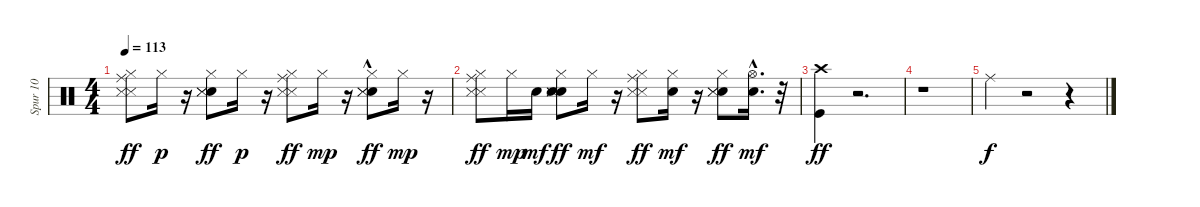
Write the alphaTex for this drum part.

\track ("Spur 10" "Spur 10") {instrument percussion}
\staff {score}
\articulation defaults
\ts (4 4)
\tempo 113
\clef neutral
\ks c
("Ride (middle)" "Hi-Hat (closed)" "Snare (side stick) 3" "Snare (side stick) 3").8{dy ff} "Hi-Hat (closed)".16{dy p} r.16 ("Hi-Hat (closed)" "Metronome (bell)" "Snare (side stick) 3" "Snare (side stick) 3").8{dy ff} "Hi-Hat (closed)".16{dy p} r.16 ("Hi-Hat (closed)" "Ride (middle)" "Snare (side stick) 3" "Snare (side stick) 3").8{dy ff} "Hi-Hat (closed)".16{dy mp} r.16 ("Hi-Hat (closed)" "Metronome (bell)"{hac} "Snare (side stick) 3" "Snare (side stick) 3").8{dy ff} "Hi-Hat (closed)".16{dy mp} r.16 |
("Hi-Hat (closed)" "Ride (middle)" "Snare (side stick) 3" "Snare (side stick) 3").8{dy ff} "Hi-Hat (closed)".16{dy mp} "Metronome (bell)".16{dy mf} ("Hi-Hat (closed)" "Metronome (bell)" "Metronome (bell)" "Snare (side stick) 3" "Snare (side stick) 3").8{dy ff} "Hi-Hat (closed)".16{dy mf} r.16 ("Hi-Hat (closed)" "Ride (middle)" "Snare (side stick) 3" "Snare (side stick) 3").8{dy ff} ("Metronome (bell)" "Hi-Hat (closed)").16{dy mf} r.16 ("Metronome (bell)" "Snare (side stick) 3" "Snare (side stick) 3" "Hi-Hat (closed)").8{dy ff} ("Metronome (bell)" "Hi-Hat (open)"{hac}).16{d dy mf} r.32 |
("Kick (hit)" "Crash high (hit)").4{dy ff} r.2{d} |
r.1 |
"Ride (middle)".4{dy f} r.2 r.4
